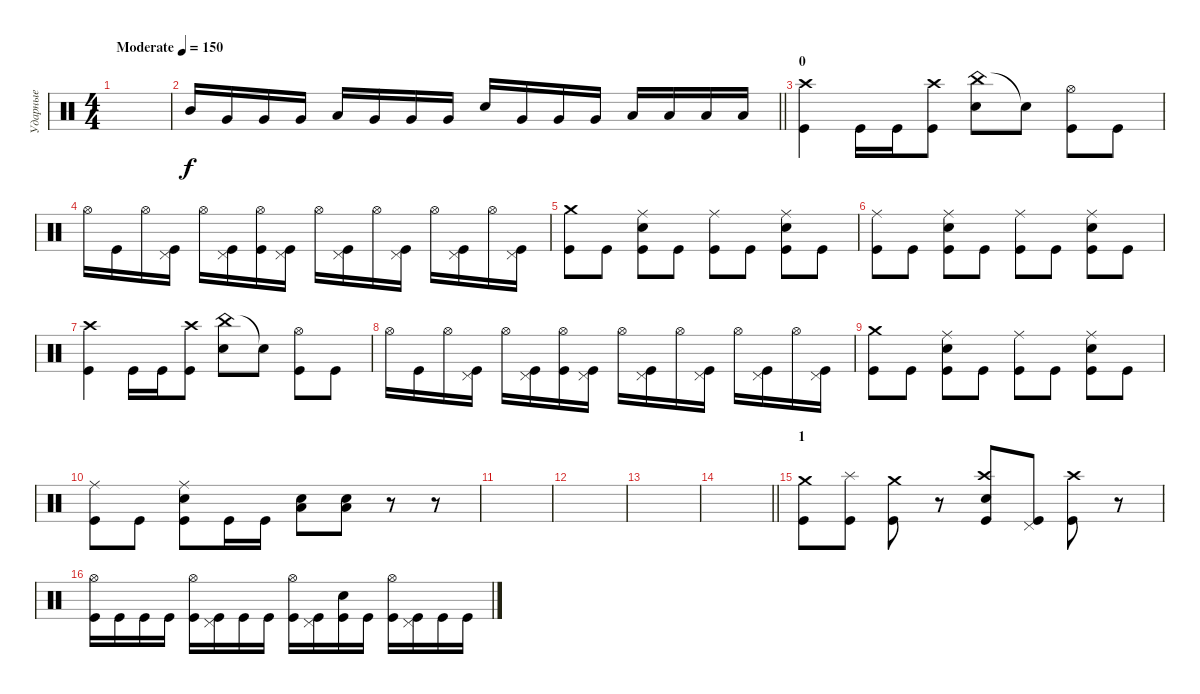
\track ("Ударные" "Ударные") {instrument percussion}
\staff {score}
\articulation defaults
\ts (4 4)
\tempo (150 "Moderate")
\clef neutral
\ks c
|
\barLineRight lightlight "Mid Tom (hit)".16 "Very Low Tom (hit)".16 "Very Low Tom (hit)".16 "Very Low Tom (hit)".16 "Low Tom (hit)".16 "Very Low Tom (hit)".16 "Very Low Tom (hit)".16 "Very Low Tom (hit)".16 "Electric Snare (hit)".16 "Very Low Tom (hit)".16 "Very Low Tom (hit)".16 "Very Low Tom (hit)".16 "Low Floor Tom (hit)".16 "Low Floor Tom (hit)".16 "Low Floor Tom (hit)".16 "Low Floor Tom (hit)".16
|
\section ("" "0")
("Crash high (hit)" "Kick (hit)").4 "Kick (hit)".16 "Kick (hit)".16 ("Crash high (hit)" "Kick (hit)").8 ("China (hit)" "Electric Snare (hit)").8 "Snare (hit)"{t}.8 ("Hi-Hat (open)" "Kick (hit)").8 "Kick (hit)".8 |
"Hi-Hat (open)".16 "Kick (hit)".16 "Hi-Hat (open)".16 ("Pedal Hi-Hat (hit)" "Kick (hit)").16 "Hi-Hat (open)".16 ("Pedal Hi-Hat (hit)" "Kick (hit)").16 ("Hi-Hat (open)" "Kick (hit)").16 ("Pedal Hi-Hat (hit)" "Kick (hit)").16 "Hi-Hat (open)".16 ("Pedal Hi-Hat (hit)" "Kick (hit)").16 "Hi-Hat (open)".16 ("Pedal Hi-Hat (hit)" "Kick (hit)").16 "Hi-Hat (open)".16 ("Pedal Hi-Hat (hit)" "Kick (hit)").16 "Hi-Hat (open)".16 ("Pedal Hi-Hat (hit)" "Kick (hit)").16 |
("Crash medium (hit)" "Kick (hit)").8 "Kick (hit)".8 ("Ride (middle)" "Electric Snare (hit)" "Kick (hit)").8 "Kick (hit)".8 ("Ride (middle)" "Kick (hit)").8 "Kick (hit)".8 ("Ride (middle)" "Electric Snare (hit)" "Kick (hit)").8 "Kick (hit)".8 |
("Ride (middle)" "Kick (hit)").8 "Kick (hit)".8 ("Ride (middle)" "Electric Snare (hit)" "Kick (hit)").8 "Kick (hit)".8 ("Ride (middle)" "Kick (hit)").8 "Kick (hit)".8 ("Ride (middle)" "Electric Snare (hit)" "Kick (hit)").8 "Kick (hit)".8 |
("Crash high (hit)" "Kick (hit)").4 "Kick (hit)".16 "Kick (hit)".16 ("Crash high (hit)" "Kick (hit)").8 ("China (hit)" "Electric Snare (hit)").8 "Snare (hit)"{t}.8 ("Hi-Hat (open)" "Kick (hit)").8 "Kick (hit)".8 |
"Hi-Hat (open)".16 "Kick (hit)".16 "Hi-Hat (open)".16 ("Pedal Hi-Hat (hit)" "Kick (hit)").16 "Hi-Hat (open)".16 ("Pedal Hi-Hat (hit)" "Kick (hit)").16 ("Hi-Hat (open)" "Kick (hit)").16 ("Pedal Hi-Hat (hit)" "Kick (hit)").16 "Hi-Hat (open)".16 ("Pedal Hi-Hat (hit)" "Kick (hit)").16 "Hi-Hat (open)".16 ("Pedal Hi-Hat (hit)" "Kick (hit)").16 "Hi-Hat (open)".16 ("Pedal Hi-Hat (hit)" "Kick (hit)").16 "Hi-Hat (open)".16 ("Pedal Hi-Hat (hit)" "Kick (hit)").16 |
("Crash medium (hit)" "Kick (hit)").8 "Kick (hit)".8 ("Ride (middle)" "Electric Snare (hit)" "Kick (hit)").8 "Kick (hit)".8 ("Ride (middle)" "Kick (hit)").8 "Kick (hit)".8 ("Ride (middle)" "Electric Snare (hit)" "Kick (hit)").8 "Kick (hit)".8 |
("Ride (middle)" "Kick (hit)").8 "Kick (hit)".8 ("Ride (middle)" "Electric Snare (hit)" "Kick (hit)").8 "Kick (hit)".16 "Kick (hit)".16 ("Low Floor Tom (hit)" "Electric Snare (hit)").8 ("Low Floor Tom (hit)" "Electric Snare (hit)").8 r.8 r.8 |
|
|
|
\barLineRight lightlight
|
\section ("" "1")
("Crash medium (hit)" "Kick (hit)").8 ("Splash (hit)" "Kick (hit)").8 ("Crash medium (hit)" "Kick (hit)").8 r.8 ("Crash high (hit)" "Electric Snare (hit)" "Kick (hit)").8 ("Pedal Hi-Hat (hit)" "Kick (hit)").8 ("Crash high (hit)" "Kick (hit)").8 r.8 |
("Hi-Hat (open)" "Kick (hit)").16 "Kick (hit)".16 "Kick (hit)".16 "Kick (hit)".16 ("Hi-Hat (open)" "Kick (hit)").16 ("Pedal Hi-Hat (hit)" "Kick (hit)").16 "Kick (hit)".16 "Kick (hit)".16 ("Hi-Hat (open)" "Kick (hit)").16 ("Pedal Hi-Hat (hit)" "Kick (hit)").16 ("Electric Snare (hit)" "Kick (hit)").16 "Kick (hit)".16 ("Hi-Hat (open)" "Kick (hit)").16 ("Pedal Hi-Hat (hit)" "Kick (hit)").16 "Kick (hit)".16 "Kick (hit)".16
